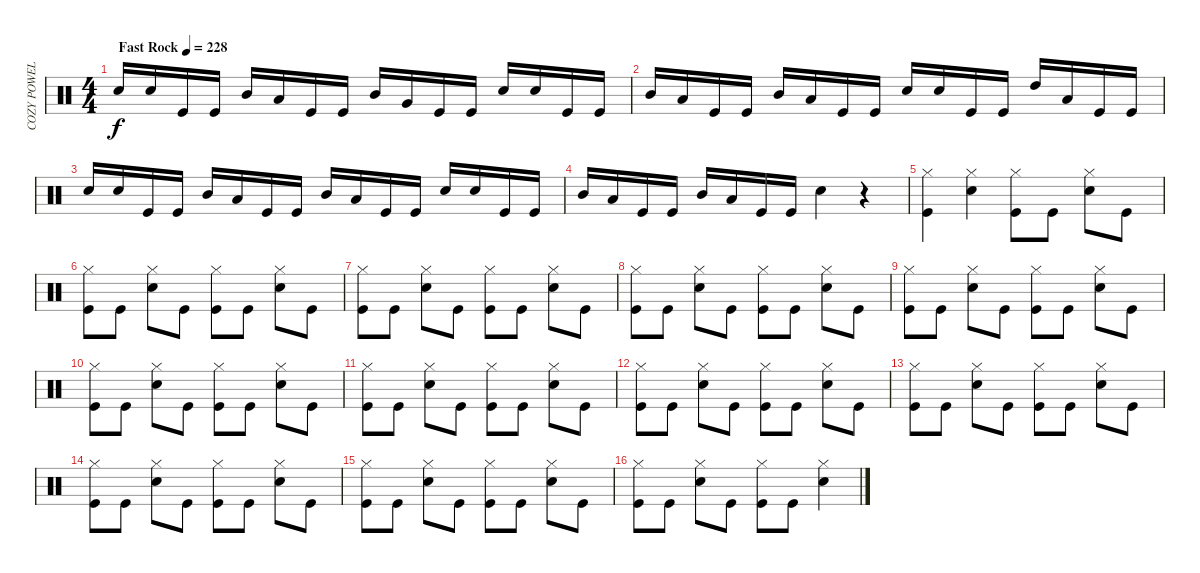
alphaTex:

\track ("COZY POWELL" "COZY POWEL") {instrument percussion}
\staff {score}
\articulation defaults
\ts (4 4)
\tempo (228 "Fast Rock")
\clef neutral
\ks c "Snare (hit) 2".16{dy f} "Snare (hit) 2".16 "Kick (hit)".16 "Kick (hit)".16 "Mid Tom (hit)".16 "Low Tom (hit)".16 "Kick (hit)".16 "Kick (hit)".16 "Mid Tom (hit)".16 "Very Low Tom (hit)".16 "Kick (hit)".16 "Kick (hit)".16 "Snare (hit) 2".16 "Snare (hit) 2".16 "Kick (hit)".16 "Kick (hit)".16
|
"Mid Tom (hit)".16 "Low Tom (hit)".16 "Kick (hit)".16 "Kick (hit)".16 "Mid Tom (hit)".16 "Low Tom (hit)".16 "Kick (hit)".16 "Kick (hit)".16 "Snare (hit) 2".16 "Snare (hit) 2".16 "Kick (hit)".16 "Kick (hit)".16 "High Tom (hit)".16 "Low Tom (hit)".16 "Kick (hit)".16 "Kick (hit)".16 |
"Snare (hit) 2".16 "Snare (hit) 2".16 "Kick (hit)".16 "Kick (hit)".16 "Mid Tom (hit)".16 "Low Tom (hit)".16 "Kick (hit)".16 "Kick (hit)".16 "Mid Tom (hit)".16 "Low Tom (hit)".16 "Kick (hit)".16 "Kick (hit)".16 "Snare (hit) 2".16 "Snare (hit) 2".16 "Kick (hit)".16 "Kick (hit)".16 |
"Mid Tom (hit)".16 "Low Tom (hit)".16 "Kick (hit)".16 "Kick (hit)".16 "Mid Tom (hit)".16 "Low Tom (hit)".16 "Kick (hit)".16 "Kick (hit)".16 "Snare (hit) 2".4 r.4 |
("Hi-Hat (closed)" "Kick (hit)").4 ("Hi-Hat (closed)" "Snare (hit) 2").4 ("Hi-Hat (closed)" "Kick (hit)").8 "Kick (hit)".8 ("Hi-Hat (closed)" "Snare (hit) 2").8 "Kick (hit)".8 |
("Hi-Hat (closed)" "Kick (hit)").8 "Kick (hit)".8 ("Hi-Hat (closed)" "Snare (hit) 2").8 "Kick (hit)".8 ("Hi-Hat (closed)" "Kick (hit)").8 "Kick (hit)".8 ("Hi-Hat (closed)" "Snare (hit) 2").8 "Kick (hit)".8 |
("Hi-Hat (closed)" "Kick (hit)").8 "Kick (hit)".8 ("Hi-Hat (closed)" "Snare (hit) 2").8 "Kick (hit)".8 ("Hi-Hat (closed)" "Kick (hit)").8 "Kick (hit)".8 ("Hi-Hat (closed)" "Snare (hit) 2").8 "Kick (hit)".8 |
("Hi-Hat (closed)" "Kick (hit)").8 "Kick (hit)".8 ("Hi-Hat (closed)" "Snare (hit) 2").8 "Kick (hit)".8 ("Hi-Hat (closed)" "Kick (hit)").8 "Kick (hit)".8 ("Hi-Hat (closed)" "Snare (hit) 2").8 "Kick (hit)".8 |
("Hi-Hat (closed)" "Kick (hit)").8 "Kick (hit)".8 ("Hi-Hat (closed)" "Snare (hit) 2").8 "Kick (hit)".8 ("Hi-Hat (closed)" "Kick (hit)").8 "Kick (hit)".8 ("Hi-Hat (closed)" "Snare (hit) 2").8 "Kick (hit)".8 |
("Hi-Hat (closed)" "Kick (hit)").8 "Kick (hit)".8 ("Hi-Hat (closed)" "Snare (hit) 2").8 "Kick (hit)".8 ("Hi-Hat (closed)" "Kick (hit)").8 "Kick (hit)".8 ("Hi-Hat (closed)" "Snare (hit) 2").8 "Kick (hit)".8 |
("Hi-Hat (closed)" "Kick (hit)").8 "Kick (hit)".8 ("Hi-Hat (closed)" "Snare (hit) 2").8 "Kick (hit)".8 ("Hi-Hat (closed)" "Kick (hit)").8 "Kick (hit)".8 ("Hi-Hat (closed)" "Snare (hit) 2").8 "Kick (hit)".8 |
("Hi-Hat (closed)" "Kick (hit)").8 "Kick (hit)".8 ("Hi-Hat (closed)" "Snare (hit) 2").8 "Kick (hit)".8 ("Hi-Hat (closed)" "Kick (hit)").8 "Kick (hit)".8 ("Hi-Hat (closed)" "Snare (hit) 2").8 "Kick (hit)".8 |
("Hi-Hat (closed)" "Kick (hit)").8 "Kick (hit)".8 ("Hi-Hat (closed)" "Snare (hit) 2").8 "Kick (hit)".8 ("Hi-Hat (closed)" "Kick (hit)").8 "Kick (hit)".8 ("Hi-Hat (closed)" "Snare (hit) 2").8 "Kick (hit)".8 |
("Hi-Hat (closed)" "Kick (hit)").8 "Kick (hit)".8 ("Hi-Hat (closed)" "Snare (hit) 2").8 "Kick (hit)".8 ("Hi-Hat (closed)" "Kick (hit)").8 "Kick (hit)".8 ("Hi-Hat (closed)" "Snare (hit) 2").8 "Kick (hit)".8 |
("Hi-Hat (closed)" "Kick (hit)").8 "Kick (hit)".8 ("Hi-Hat (closed)" "Snare (hit) 2").8 "Kick (hit)".8 ("Hi-Hat (closed)" "Kick (hit)").8 "Kick (hit)".8 ("Hi-Hat (closed)" "Snare (hit) 2").8 "Kick (hit)".8 |
("Hi-Hat (closed)" "Kick (hit)").8 "Kick (hit)".8 ("Hi-Hat (closed)" "Snare (hit) 2").8 "Kick (hit)".8 ("Hi-Hat (closed)" "Kick (hit)").8 "Kick (hit)".8 ("Hi-Hat (closed)" "Snare (hit) 2").4
